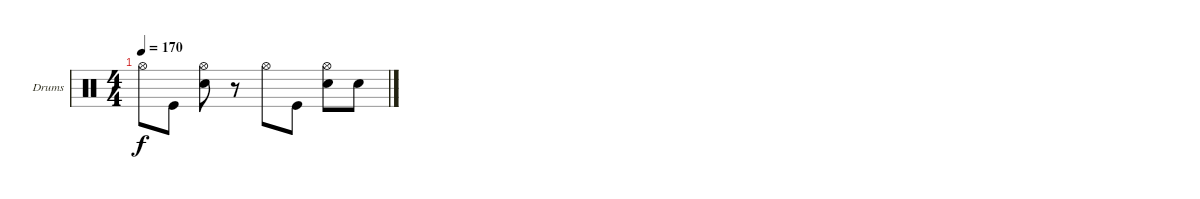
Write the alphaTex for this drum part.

\bracketExtendMode groupsimilarinstruments
\firstSystemTrackNameOrientation horizontal
\otherSystemsTrackNameOrientation horizontal
\track ("Drumkit" "Drums") {instrument percussion}
\staff {score}
\articulation defaults
\ts (4 4)
\tempo 170
\clef neutral
\ks c "Hi-Hat (open)".8{dy f} "Kick (hit)".8
("Hi-Hat (open)" "Snare (hit) 2").8 r.8 "Hi-Hat (open)".8 "Kick (hit)".8 ("Hi-Hat (open)" "Snare (hit) 2").8 "Snare (hit) 2".8
